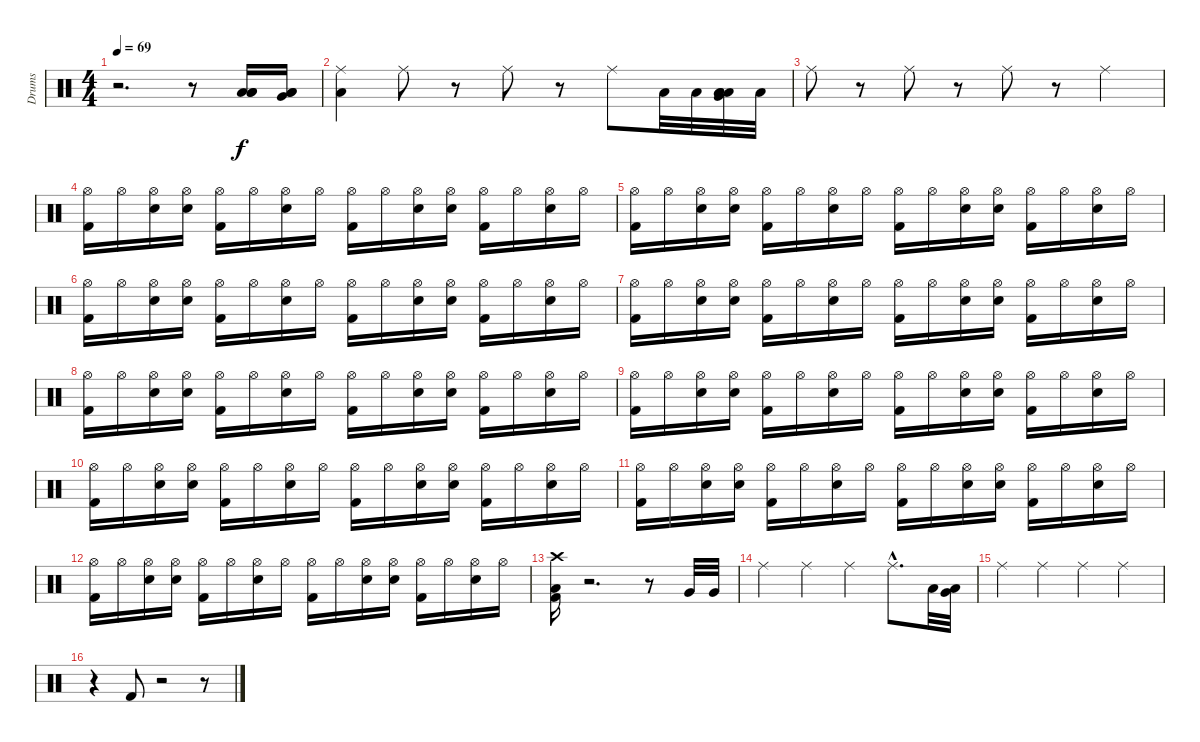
\track ("Drums" "Drums") {instrument percussion}
\staff {score}
\articulation defaults
\ts (4 4)
\tempo 69
\clef neutral
\ks c
r.2{d dy f} r.8 ("Low Floor Tom (hit)" "Low Floor Tom (hit)" "Low Floor Tom (hit)").16 ("Low Floor Tom (hit)" "Very Low Tom (hit)" "Low Tom (hit)").16 |
("Low Floor Tom (hit)" "Ride (middle)").4 "Ride (middle)".8 r.8 "Ride (middle)".8 r.8 "Ride (middle)".8 "Low Floor Tom (hit)".32 "Low Floor Tom (hit)".32 ("Low Floor Tom (hit)" "Low Floor Tom (hit)" "Low Floor Tom (hit)" "Very Low Tom (hit)").32 "Low Tom (hit)".32 |
"Ride (middle)".8 r.8 "Ride (middle)".8 r.8 "Ride (middle)".8 r.8 "Ride (middle)".4 |
("Kick (hit) 2" "Hi-Hat (open)").16 "Hi-Hat (open)".16 ("Snare (hit) 2" "Hi-Hat (open)").16 ("Snare (hit) 2" "Hi-Hat (open)").16 ("Kick (hit) 2" "Hi-Hat (open)").16 "Hi-Hat (open)".16 ("Snare (hit) 2" "Hi-Hat (open)").16 "Hi-Hat (open)".16 ("Kick (hit) 2" "Hi-Hat (open)").16 "Hi-Hat (open)".16 ("Snare (hit) 2" "Hi-Hat (open)").16 ("Snare (hit) 2" "Hi-Hat (open)").16 ("Kick (hit) 2" "Hi-Hat (open)").16 "Hi-Hat (open)".16 ("Snare (hit) 2" "Hi-Hat (open)").16 "Hi-Hat (open)".16 |
("Kick (hit) 2" "Hi-Hat (open)").16 "Hi-Hat (open)".16 ("Snare (hit) 2" "Hi-Hat (open)").16 ("Snare (hit) 2" "Hi-Hat (open)").16 ("Kick (hit) 2" "Hi-Hat (open)").16 "Hi-Hat (open)".16 ("Snare (hit) 2" "Hi-Hat (open)").16 "Hi-Hat (open)".16 ("Kick (hit) 2" "Hi-Hat (open)").16 "Hi-Hat (open)".16 ("Snare (hit) 2" "Hi-Hat (open)").16 ("Snare (hit) 2" "Hi-Hat (open)").16 ("Kick (hit) 2" "Hi-Hat (open)").16 "Hi-Hat (open)".16 ("Snare (hit) 2" "Hi-Hat (open)").16 "Hi-Hat (open)".16 |
("Kick (hit) 2" "Hi-Hat (open)").16 "Hi-Hat (open)".16 ("Snare (hit) 2" "Hi-Hat (open)").16 ("Snare (hit) 2" "Hi-Hat (open)").16 ("Kick (hit) 2" "Hi-Hat (open)").16 "Hi-Hat (open)".16 ("Snare (hit) 2" "Hi-Hat (open)").16 "Hi-Hat (open)".16 ("Kick (hit) 2" "Hi-Hat (open)").16 "Hi-Hat (open)".16 ("Snare (hit) 2" "Hi-Hat (open)").16 ("Snare (hit) 2" "Hi-Hat (open)").16 ("Kick (hit) 2" "Hi-Hat (open)").16 "Hi-Hat (open)".16 ("Snare (hit) 2" "Hi-Hat (open)").16 "Hi-Hat (open)".16 |
("Kick (hit) 2" "Hi-Hat (open)").16 "Hi-Hat (open)".16 ("Snare (hit) 2" "Hi-Hat (open)").16 ("Snare (hit) 2" "Hi-Hat (open)").16 ("Kick (hit) 2" "Hi-Hat (open)").16 "Hi-Hat (open)".16 ("Snare (hit) 2" "Hi-Hat (open)").16 "Hi-Hat (open)".16 ("Kick (hit) 2" "Hi-Hat (open)").16 "Hi-Hat (open)".16 ("Snare (hit) 2" "Hi-Hat (open)").16 ("Snare (hit) 2" "Hi-Hat (open)").16 ("Kick (hit) 2" "Hi-Hat (open)").16 "Hi-Hat (open)".16 ("Snare (hit) 2" "Hi-Hat (open)").16 "Hi-Hat (open)".16 |
("Kick (hit) 2" "Hi-Hat (open)").16 "Hi-Hat (open)".16 ("Snare (hit) 2" "Hi-Hat (open)").16 ("Snare (hit) 2" "Hi-Hat (open)").16 ("Kick (hit) 2" "Hi-Hat (open)").16 "Hi-Hat (open)".16 ("Snare (hit) 2" "Hi-Hat (open)").16 "Hi-Hat (open)".16 ("Kick (hit) 2" "Hi-Hat (open)").16 "Hi-Hat (open)".16 ("Snare (hit) 2" "Hi-Hat (open)").16 ("Snare (hit) 2" "Hi-Hat (open)").16 ("Kick (hit) 2" "Hi-Hat (open)").16 "Hi-Hat (open)".16 ("Snare (hit) 2" "Hi-Hat (open)").16 "Hi-Hat (open)".16 |
("Kick (hit) 2" "Hi-Hat (open)").16 "Hi-Hat (open)".16 ("Snare (hit) 2" "Hi-Hat (open)").16 ("Snare (hit) 2" "Hi-Hat (open)").16 ("Kick (hit) 2" "Hi-Hat (open)").16 "Hi-Hat (open)".16 ("Snare (hit) 2" "Hi-Hat (open)").16 "Hi-Hat (open)".16 ("Kick (hit) 2" "Hi-Hat (open)").16 "Hi-Hat (open)".16 ("Snare (hit) 2" "Hi-Hat (open)").16 ("Snare (hit) 2" "Hi-Hat (open)").16 ("Kick (hit) 2" "Hi-Hat (open)").16 "Hi-Hat (open)".16 ("Snare (hit) 2" "Hi-Hat (open)").16 "Hi-Hat (open)".16 |
("Kick (hit) 2" "Hi-Hat (open)").16 "Hi-Hat (open)".16 ("Snare (hit) 2" "Hi-Hat (open)").16 ("Snare (hit) 2" "Hi-Hat (open)").16 ("Kick (hit) 2" "Hi-Hat (open)").16 "Hi-Hat (open)".16 ("Snare (hit) 2" "Hi-Hat (open)").16 "Hi-Hat (open)".16 ("Kick (hit) 2" "Hi-Hat (open)").16 "Hi-Hat (open)".16 ("Snare (hit) 2" "Hi-Hat (open)").16 ("Snare (hit) 2" "Hi-Hat (open)").16 ("Kick (hit) 2" "Hi-Hat (open)").16 "Hi-Hat (open)".16 ("Snare (hit) 2" "Hi-Hat (open)").16 "Hi-Hat (open)".16 |
("Kick (hit) 2" "Hi-Hat (open)").16 "Hi-Hat (open)".16 ("Snare (hit) 2" "Hi-Hat (open)").16 ("Snare (hit) 2" "Hi-Hat (open)").16 ("Kick (hit) 2" "Hi-Hat (open)").16 "Hi-Hat (open)".16 ("Snare (hit) 2" "Hi-Hat (open)").16 "Hi-Hat (open)".16 ("Kick (hit) 2" "Hi-Hat (open)").16 "Hi-Hat (open)".16 ("Snare (hit) 2" "Hi-Hat (open)").16 ("Snare (hit) 2" "Hi-Hat (open)").16 ("Kick (hit) 2" "Hi-Hat (open)").16 "Hi-Hat (open)".16 ("Snare (hit) 2" "Hi-Hat (open)").16 "Hi-Hat (open)".16 |
("Kick (hit) 2" "Hi-Hat (open)").16 "Hi-Hat (open)".16 ("Snare (hit) 2" "Hi-Hat (open)").16 ("Snare (hit) 2" "Hi-Hat (open)").16 ("Kick (hit) 2" "Hi-Hat (open)").16 "Hi-Hat (open)".16 ("Snare (hit) 2" "Hi-Hat (open)").16 "Hi-Hat (open)".16 ("Kick (hit) 2" "Hi-Hat (open)").16 "Hi-Hat (open)".16 ("Snare (hit) 2" "Hi-Hat (open)").16 ("Snare (hit) 2" "Hi-Hat (open)").16 ("Kick (hit) 2" "Hi-Hat (open)").16 "Hi-Hat (open)".16 ("Snare (hit) 2" "Hi-Hat (open)").16 "Hi-Hat (open)".16 |
("Kick (hit) 2" "Low Floor Tom (hit)" "Crash high (hit)").16 r.2{d} r.8 "Very Low Tom (hit)".32 "Very Low Tom (hit)".32 |
"Ride (middle)".4 "Ride (middle)".4 "Ride (middle)".4 "Ride (middle)"{hac}.8{d} "Low Floor Tom (hit)".32 ("Very Low Tom (hit)" "Low Tom (hit)").32 |
"Ride (middle)".4 "Ride (middle)".4 "Ride (middle)".4 "Ride (middle)".4 |
r.4 "Kick (hit) 2".8 r.2 r.8
